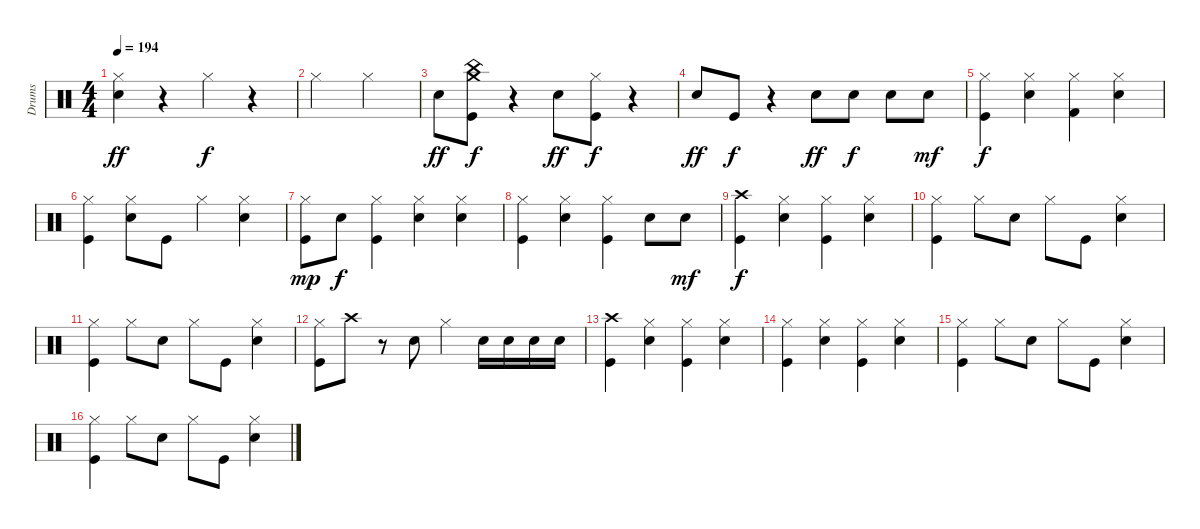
\track ("Drums" "Drums") {instrument percussion}
\staff {score}
\articulation defaults
\ts (4 4)
\tempo 194
\clef neutral
\ks c
("Snare (hit) 2" "Hi-Hat (closed)").4{dy ff} r.4 "Hi-Hat (closed)".4{dy f} r.4 |
"Hi-Hat (closed)".2 "Hi-Hat (closed)".2 |
"Snare (hit) 2".8{dy ff} ("Kick (hit)" "China (hit)" "Crash medium (hit)").8{dy f} r.4 "Snare (hit) 2".8{dy ff} ("Kick (hit)" "Hi-Hat (closed)").8{dy f} r.4 |
"Snare (hit) 2".8{dy ff} "Kick (hit)".8{dy f} r.4 "Snare (hit) 2".8{dy ff} "Snare (hit) 2".8{dy f} "Snare (hit) 2".8 "Snare (hit) 2".8{dy mf} |
("Kick (hit)" "Hi-Hat (closed)").4{dy f} ("Snare (hit) 2" "Hi-Hat (closed)").4 ("Kick (hit) 2" "Hi-Hat (closed)").4 ("Snare (hit) 2" "Hi-Hat (closed)").4 |
("Kick (hit)" "Hi-Hat (closed)").4 ("Snare (hit) 2" "Hi-Hat (closed)").8 "Kick (hit)".8 "Hi-Hat (closed)".4 ("Snare (hit) 2" "Hi-Hat (closed)").4 |
("Kick (hit)" "Hi-Hat (closed)").8{dy mp} "Snare (hit) 2".8{dy f} ("Kick (hit)" "Hi-Hat (closed)").4 ("Snare (hit) 2" "Hi-Hat (closed)").4 ("Snare (hit) 2" "Hi-Hat (closed)").4 |
("Kick (hit)" "Hi-Hat (closed)").4 ("Snare (hit) 2" "Hi-Hat (closed)").4 ("Kick (hit)" "Hi-Hat (closed)").4 "Snare (hit) 2".8 "Snare (hit) 2".8{dy mf} |
("Kick (hit)" "Crash high (hit)").4{dy f} ("Snare (hit) 2" "Hi-Hat (closed)").4 ("Kick (hit)" "Hi-Hat (closed)").4 ("Snare (hit) 2" "Hi-Hat (closed)").4 |
("Kick (hit)" "Hi-Hat (closed)").4 "Hi-Hat (closed)".8 "Snare (hit) 2".8 "Hi-Hat (closed)".8 "Kick (hit)".8 ("Snare (hit) 2" "Hi-Hat (closed)").4 |
("Kick (hit)" "Hi-Hat (closed)").4 "Hi-Hat (closed)".8 "Snare (hit) 2".8 "Hi-Hat (closed)".8 "Kick (hit)".8 ("Snare (hit) 2" "Hi-Hat (closed)").4 |
("Kick (hit)" "Hi-Hat (closed)").8 "Crash high (hit)".8 r.8 "Snare (hit) 2".8 "Hi-Hat (closed)".4 "Snare (hit) 2".16 "Snare (hit) 2".16 "Snare (hit) 2".16 "Snare (hit) 2".16 |
("Kick (hit)" "Crash high (hit)").4 ("Snare (hit) 2" "Hi-Hat (closed)").4 ("Kick (hit)" "Hi-Hat (closed)").4 ("Snare (hit) 2" "Hi-Hat (closed)").4 |
("Kick (hit)" "Hi-Hat (closed)").4 ("Snare (hit) 2" "Hi-Hat (closed)").4 ("Kick (hit)" "Hi-Hat (closed)").4 ("Snare (hit) 2" "Hi-Hat (closed)").4 |
("Kick (hit)" "Hi-Hat (closed)").4 "Hi-Hat (closed)".8 "Snare (hit) 2".8 "Hi-Hat (closed)".8 "Kick (hit)".8 ("Snare (hit) 2" "Hi-Hat (closed)").4 |
("Kick (hit)" "Hi-Hat (closed)").4 "Hi-Hat (closed)".8 "Snare (hit) 2".8 "Hi-Hat (closed)".8 "Kick (hit)".8 ("Snare (hit) 2" "Hi-Hat (closed)").4
